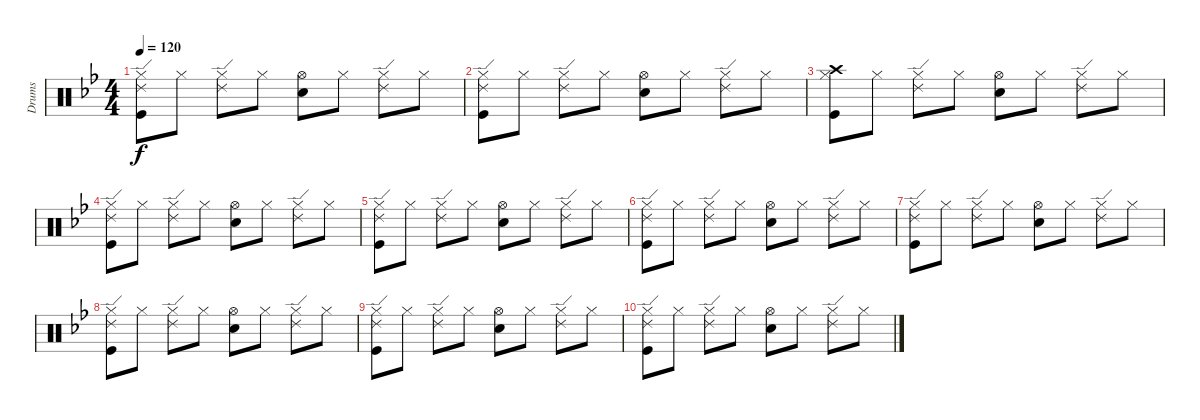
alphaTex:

\track ("Drums" "Drums") {instrument percussion}
\staff {score}
\articulation defaults
\ts (4 4)
\tempo 120
\clef neutral
\ks gminor
("Hi-Hat (closed)" "Ride (edge) 2" "Kick (hit)").8{dy f} "Hi-Hat (closed)".8 ("Hi-Hat (closed)" "Ride (edge) 2").8 "Hi-Hat (closed)".8 ("Hi-Hat (open)" "Electric Snare (hit)").8 "Hi-Hat (closed)".8 ("Hi-Hat (closed)" "Ride (edge) 2").8 "Hi-Hat (closed)".8 |
("Hi-Hat (closed)" "Ride (edge) 2" "Kick (hit)").8 "Hi-Hat (closed)".8 ("Hi-Hat (closed)" "Ride (edge) 2").8 "Hi-Hat (closed)".8 ("Hi-Hat (open)" "Electric Snare (hit)").8 "Hi-Hat (closed)".8 ("Hi-Hat (closed)" "Ride (edge) 2").8 "Hi-Hat (closed)".8 |
("Crash high (hit)" "Hi-Hat (closed)" "Kick (hit)").8 "Hi-Hat (closed)".8 ("Hi-Hat (closed)" "Ride (edge) 2").8 "Hi-Hat (closed)".8 ("Hi-Hat (open)" "Electric Snare (hit)").8 "Hi-Hat (closed)".8 ("Hi-Hat (closed)" "Ride (edge) 2").8 "Hi-Hat (closed)".8 |
("Hi-Hat (closed)" "Ride (edge) 2" "Kick (hit)").8 "Hi-Hat (closed)".8 ("Hi-Hat (closed)" "Ride (edge) 2").8 "Hi-Hat (closed)".8 ("Hi-Hat (open)" "Electric Snare (hit)").8 "Hi-Hat (closed)".8 ("Hi-Hat (closed)" "Ride (edge) 2").8 "Hi-Hat (closed)".8 |
("Hi-Hat (closed)" "Ride (edge) 2" "Kick (hit)").8 "Hi-Hat (closed)".8 ("Hi-Hat (closed)" "Ride (edge) 2").8 "Hi-Hat (closed)".8 ("Hi-Hat (open)" "Electric Snare (hit)").8 "Hi-Hat (closed)".8 ("Hi-Hat (closed)" "Ride (edge) 2").8 "Hi-Hat (closed)".8 |
("Hi-Hat (closed)" "Ride (edge) 2" "Kick (hit)").8 "Hi-Hat (closed)".8 ("Hi-Hat (closed)" "Ride (edge) 2").8 "Hi-Hat (closed)".8 ("Hi-Hat (open)" "Electric Snare (hit)").8 "Hi-Hat (closed)".8 ("Hi-Hat (closed)" "Ride (edge) 2").8 "Hi-Hat (closed)".8 |
("Hi-Hat (closed)" "Ride (edge) 2" "Kick (hit)").8 "Hi-Hat (closed)".8 ("Hi-Hat (closed)" "Ride (edge) 2").8 "Hi-Hat (closed)".8 ("Hi-Hat (open)" "Electric Snare (hit)").8 "Hi-Hat (closed)".8 ("Hi-Hat (closed)" "Ride (edge) 2").8 "Hi-Hat (closed)".8 |
("Hi-Hat (closed)" "Ride (edge) 2" "Kick (hit)").8 "Hi-Hat (closed)".8 ("Hi-Hat (closed)" "Ride (edge) 2").8 "Hi-Hat (closed)".8 ("Hi-Hat (open)" "Electric Snare (hit)").8 "Hi-Hat (closed)".8 ("Hi-Hat (closed)" "Ride (edge) 2").8 "Hi-Hat (closed)".8 |
("Hi-Hat (closed)" "Ride (edge) 2" "Kick (hit)").8 "Hi-Hat (closed)".8 ("Hi-Hat (closed)" "Ride (edge) 2").8 "Hi-Hat (closed)".8 ("Hi-Hat (open)" "Electric Snare (hit)").8 "Hi-Hat (closed)".8 ("Hi-Hat (closed)" "Ride (edge) 2").8 "Hi-Hat (closed)".8 |
("Hi-Hat (closed)" "Ride (edge) 2" "Kick (hit)").8 "Hi-Hat (closed)".8 ("Hi-Hat (closed)" "Ride (edge) 2").8 "Hi-Hat (closed)".8 ("Hi-Hat (open)" "Electric Snare (hit)").8 "Hi-Hat (closed)".8 ("Hi-Hat (closed)" "Ride (edge) 2").8 "Hi-Hat (closed)".8
